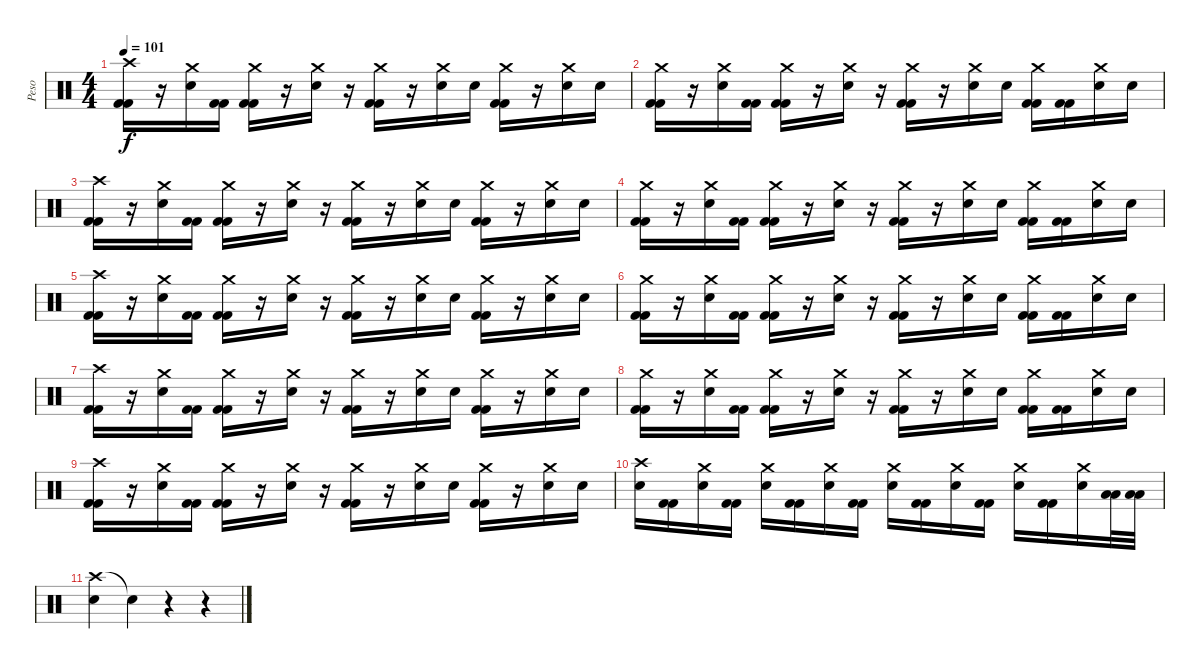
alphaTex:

\track ("Peso" "Peso") {instrument percussion}
\staff {score}
\articulation defaults
\ts (4 4)
\tempo 101
\clef neutral
\ks c
("Crash high (hit)" "Kick (hit) 2" "Kick (hit) 2").16{dy f} r.16 ("Crash medium (hit)" "Snare (hit) 2").16 ("Kick (hit) 2" "Kick (hit) 2").16 ("Crash medium (hit)" "Kick (hit) 2" "Kick (hit) 2").16 r.16 ("Crash medium (hit)" "Snare (hit) 2").16 r.16 ("Crash medium (hit)" "Kick (hit) 2" "Kick (hit) 2").16 r.16 ("Crash medium (hit)" "Snare (hit) 2").16 "Snare (hit) 2".16 ("Crash medium (hit)" "Kick (hit) 2" "Kick (hit) 2").16 r.16 ("Crash medium (hit)" "Snare (hit) 2").16 "Snare (hit) 2".16 |
("Crash medium (hit)" "Kick (hit) 2" "Kick (hit) 2").16 r.16 ("Crash medium (hit)" "Snare (hit) 2").16 ("Kick (hit) 2" "Kick (hit) 2").16 ("Crash medium (hit)" "Kick (hit) 2" "Kick (hit) 2").16 r.16 ("Crash medium (hit)" "Snare (hit) 2").16 r.16 ("Crash medium (hit)" "Kick (hit) 2" "Kick (hit) 2").16 r.16 ("Crash medium (hit)" "Snare (hit) 2").16 "Snare (hit) 2".16 ("Crash medium (hit)" "Kick (hit) 2" "Kick (hit) 2").16 ("Kick (hit) 2" "Kick (hit) 2").16 ("Crash medium (hit)" "Snare (hit) 2").16 "Snare (hit) 2".16 |
("Crash high (hit)" "Kick (hit) 2" "Kick (hit) 2").16 r.16 ("Crash medium (hit)" "Snare (hit) 2").16 ("Kick (hit) 2" "Kick (hit) 2").16 ("Crash medium (hit)" "Kick (hit) 2" "Kick (hit) 2").16 r.16 ("Crash medium (hit)" "Snare (hit) 2").16 r.16 ("Crash medium (hit)" "Kick (hit) 2" "Kick (hit) 2").16 r.16 ("Crash medium (hit)" "Snare (hit) 2").16 "Snare (hit) 2".16 ("Crash medium (hit)" "Kick (hit) 2" "Kick (hit) 2").16 r.16 ("Crash medium (hit)" "Snare (hit) 2").16 "Snare (hit) 2".16 |
("Crash medium (hit)" "Kick (hit) 2" "Kick (hit) 2").16 r.16 ("Crash medium (hit)" "Snare (hit) 2").16 ("Kick (hit) 2" "Kick (hit) 2").16 ("Crash medium (hit)" "Kick (hit) 2" "Kick (hit) 2").16 r.16 ("Crash medium (hit)" "Snare (hit) 2").16 r.16 ("Crash medium (hit)" "Kick (hit) 2" "Kick (hit) 2").16 r.16 ("Crash medium (hit)" "Snare (hit) 2").16 "Snare (hit) 2".16 ("Crash medium (hit)" "Kick (hit) 2" "Kick (hit) 2").16 ("Kick (hit) 2" "Kick (hit) 2").16 ("Crash medium (hit)" "Snare (hit) 2").16 "Snare (hit) 2".16 |
("Crash high (hit)" "Kick (hit) 2" "Kick (hit) 2").16 r.16 ("Crash medium (hit)" "Snare (hit) 2").16 ("Kick (hit) 2" "Kick (hit) 2").16 ("Crash medium (hit)" "Kick (hit) 2" "Kick (hit) 2").16 r.16 ("Crash medium (hit)" "Snare (hit) 2").16 r.16 ("Crash medium (hit)" "Kick (hit) 2" "Kick (hit) 2").16 r.16 ("Crash medium (hit)" "Snare (hit) 2").16 "Snare (hit) 2".16 ("Crash medium (hit)" "Kick (hit) 2" "Kick (hit) 2").16 r.16 ("Crash medium (hit)" "Snare (hit) 2").16 "Snare (hit) 2".16 |
("Crash medium (hit)" "Kick (hit) 2" "Kick (hit) 2").16 r.16 ("Crash medium (hit)" "Snare (hit) 2").16 ("Kick (hit) 2" "Kick (hit) 2").16 ("Crash medium (hit)" "Kick (hit) 2" "Kick (hit) 2").16 r.16 ("Crash medium (hit)" "Snare (hit) 2").16 r.16 ("Crash medium (hit)" "Kick (hit) 2" "Kick (hit) 2").16 r.16 ("Crash medium (hit)" "Snare (hit) 2").16 "Snare (hit) 2".16 ("Crash medium (hit)" "Kick (hit) 2" "Kick (hit) 2").16 ("Kick (hit) 2" "Kick (hit) 2").16 ("Crash medium (hit)" "Snare (hit) 2").16 "Snare (hit) 2".16 |
("Crash high (hit)" "Kick (hit) 2" "Kick (hit) 2").16 r.16 ("Crash medium (hit)" "Snare (hit) 2").16 ("Kick (hit) 2" "Kick (hit) 2").16 ("Crash medium (hit)" "Kick (hit) 2" "Kick (hit) 2").16 r.16 ("Crash medium (hit)" "Snare (hit) 2").16 r.16 ("Crash medium (hit)" "Kick (hit) 2" "Kick (hit) 2").16 r.16 ("Crash medium (hit)" "Snare (hit) 2").16 "Snare (hit) 2".16 ("Crash medium (hit)" "Kick (hit) 2" "Kick (hit) 2").16 r.16 ("Crash medium (hit)" "Snare (hit) 2").16 "Snare (hit) 2".16 |
("Crash medium (hit)" "Kick (hit) 2" "Kick (hit) 2").16 r.16 ("Crash medium (hit)" "Snare (hit) 2").16 ("Kick (hit) 2" "Kick (hit) 2").16 ("Crash medium (hit)" "Kick (hit) 2" "Kick (hit) 2").16 r.16 ("Crash medium (hit)" "Snare (hit) 2").16 r.16 ("Crash medium (hit)" "Kick (hit) 2" "Kick (hit) 2").16 r.16 ("Crash medium (hit)" "Snare (hit) 2").16 "Snare (hit) 2".16 ("Crash medium (hit)" "Kick (hit) 2" "Kick (hit) 2").16 ("Kick (hit) 2" "Kick (hit) 2").16 ("Crash medium (hit)" "Snare (hit) 2").16 "Snare (hit) 2".16 |
("Crash high (hit)" "Kick (hit) 2" "Kick (hit) 2").16 r.16 ("Crash medium (hit)" "Snare (hit) 2").16 ("Kick (hit) 2" "Kick (hit) 2").16 ("Crash medium (hit)" "Kick (hit) 2" "Kick (hit) 2").16 r.16 ("Crash medium (hit)" "Snare (hit) 2").16 r.16 ("Crash medium (hit)" "Kick (hit) 2" "Kick (hit) 2").16 r.16 ("Crash medium (hit)" "Snare (hit) 2").16 "Snare (hit) 2".16 ("Crash medium (hit)" "Kick (hit) 2" "Kick (hit) 2").16 r.16 ("Crash medium (hit)" "Snare (hit) 2").16 "Snare (hit) 2".16 |
("Crash high (hit)" "Snare (hit) 2").16 ("Kick (hit) 2" "Kick (hit) 2").16 ("Crash medium (hit)" "Snare (hit) 2").16 ("Kick (hit) 2" "Kick (hit) 2").16 ("Crash medium (hit)" "Snare (hit) 2").16 ("Kick (hit) 2" "Kick (hit) 2").16 ("Crash medium (hit)" "Snare (hit) 2").16 ("Kick (hit) 2" "Kick (hit) 2").16 ("Crash medium (hit)" "Snare (hit) 2").16 ("Kick (hit) 2" "Kick (hit) 2").16 ("Crash medium (hit)" "Snare (hit) 2").16 ("Kick (hit) 2" "Kick (hit) 2").16 ("Crash medium (hit)" "Snare (hit) 2").16 ("Kick (hit) 2" "Kick (hit) 2").16 ("Crash medium (hit)" "Snare (hit) 2").16 ("Low Floor Tom (hit)" "Low Floor Tom (hit)").32{volume 16} ("Low Floor Tom (hit)" "Low Floor Tom (hit)").32 |
("Crash high (hit)" "Snare (hit) 2").4 "Snare (hit)"{t}.4 r.4 r.4
